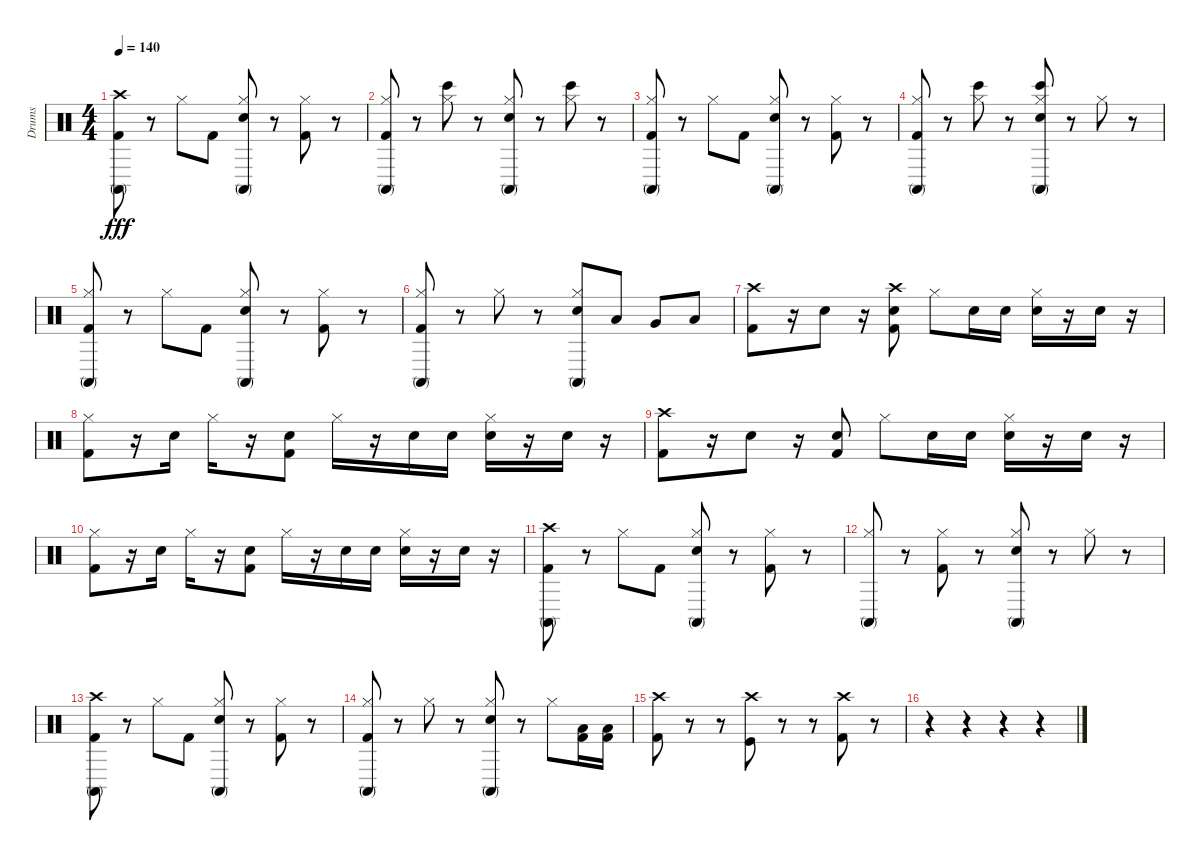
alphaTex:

\track ("Drums" "Drums") {instrument percussion}
\staff {score}
\articulation defaults
\ts (4 4)
\tempo 140
\clef neutral
\ks c
("Crash high (hit)" "Conga high (mute)" "Kick (hit) 2").8{dy fff} r.8 "Hi-Hat (closed)".8 "Kick (hit) 2".8 ("Hi-Hat (closed)" "Snare (hit) 2" "Conga high (mute)").8 r.8 ("Hi-Hat (closed)" "Kick (hit) 2").8 r.8 |
("Hi-Hat (closed)" "Conga high (mute)" "Kick (hit) 2").8 r.8 ("Hi-Hat (closed)" "Bongo High (hit)").8 r.8 ("Hi-Hat (closed)" "Snare (hit) 2" "Conga high (mute)").8 r.8 ("Hi-Hat (closed)" "Bongo High (hit)").8 r.8 |
("Hi-Hat (closed)" "Conga high (mute)" "Kick (hit) 2").8 r.8 "Hi-Hat (closed)".8 "Kick (hit) 2".8 ("Hi-Hat (closed)" "Snare (hit) 2" "Conga high (mute)").8 r.8 ("Hi-Hat (closed)" "Kick (hit) 2").8 r.8 |
("Hi-Hat (closed)" "Conga high (mute)" "Kick (hit) 2").8 r.8 ("Hi-Hat (closed)" "Bongo High (hit)").8 r.8 ("Hi-Hat (closed)" "Snare (hit) 2" "Bongo High (hit)" "Conga high (mute)").8 r.8 "Hi-Hat (closed)".8 r.8 |
("Hi-Hat (closed)" "Conga high (mute)" "Kick (hit) 2").8 r.8 "Hi-Hat (closed)".8 "Kick (hit) 2".8 ("Hi-Hat (closed)" "Snare (hit) 2" "Conga high (mute)").8 r.8 ("Hi-Hat (closed)" "Kick (hit) 2").8 r.8 |
("Hi-Hat (closed)" "Conga high (mute)" "Kick (hit) 2").8 r.8 "Hi-Hat (closed)".8 r.8 ("Hi-Hat (closed)" "Snare (hit) 2" "Conga high (mute)").8 "Low Tom (hit)".8 "Very Low Tom (hit)".8 "Low Floor Tom (hit)".8 |
("Crash high (hit)" "Kick (hit) 2").8 r.16 "Snare (hit) 2".8 r.16 ("Crash high (hit)" "Snare (hit) 2" "Kick (hit) 2").8 "Hi-Hat (closed)".8 "Snare (hit) 2".16 "Snare (hit) 2".16 ("Hi-Hat (closed)" "Snare (hit) 2").16 r.16 "Snare (hit) 2".16 r.16 |
("Hi-Hat (closed)" "Kick (hit) 2").8 r.16 "Snare (hit) 2".16 "Hi-Hat (closed)".16 r.16 ("Snare (hit) 2" "Kick (hit) 2").8 "Hi-Hat (closed)".16 r.16 "Snare (hit) 2".16 "Snare (hit) 2".16 ("Hi-Hat (closed)" "Snare (hit) 2").16 r.16 "Snare (hit) 2".16 r.16 |
("Crash high (hit)" "Kick (hit) 2").8 r.16 "Snare (hit) 2".8 r.16 ("Snare (hit) 2" "Kick (hit) 2").8 "Hi-Hat (closed)".8 "Snare (hit) 2".16 "Snare (hit) 2".16 ("Hi-Hat (closed)" "Snare (hit) 2").16 r.16 "Snare (hit) 2".16 r.16 |
("Hi-Hat (closed)" "Kick (hit) 2").8 r.16 "Snare (hit) 2".16 "Hi-Hat (closed)".16 r.16 ("Snare (hit) 2" "Kick (hit) 2").8 "Hi-Hat (closed)".16 r.16 "Snare (hit) 2".16 "Snare (hit) 2".16 ("Hi-Hat (closed)" "Snare (hit) 2").16 r.16 "Snare (hit) 2".16 r.16 |
("Crash high (hit)" "Conga high (mute)" "Kick (hit) 2").8 r.8 "Hi-Hat (closed)".8 "Kick (hit) 2".8 ("Hi-Hat (closed)" "Snare (hit) 2" "Conga high (mute)").8 r.8 ("Hi-Hat (closed)" "Kick (hit) 2").8 r.8 |
("Hi-Hat (closed)" "Conga high (mute)").8 r.8 ("Hi-Hat (closed)" "Kick (hit) 2").8 r.8 ("Hi-Hat (closed)" "Snare (hit) 2" "Conga high (mute)").8 r.8 "Hi-Hat (closed)".8 r.8 |
("Crash high (hit)" "Conga high (mute)" "Kick (hit) 2").8 r.8 "Hi-Hat (closed)".8 "Kick (hit) 2".8 ("Hi-Hat (closed)" "Snare (hit) 2" "Conga high (mute)").8 r.8 ("Hi-Hat (closed)" "Kick (hit) 2").8 r.8 |
("Hi-Hat (closed)" "Conga high (mute)" "Kick (hit) 2").8 r.8 "Hi-Hat (closed)".8 r.8 ("Hi-Hat (closed)" "Snare (hit) 2" "Conga high (mute)").8 r.8 "Hi-Hat (closed)".8 ("Low Floor Tom (hit)" "Kick (hit) 2").16 ("Low Floor Tom (hit)" "Kick (hit) 2").16 |
("Crash high (hit)" "Kick (hit) 2").8 r.8 r.8 ("Crash high (hit)" "Kick (hit)").8 r.8 r.8 ("Crash high (hit)" "Kick (hit) 2").8 r.8 |
r.4 r.4 r.4 r.4
